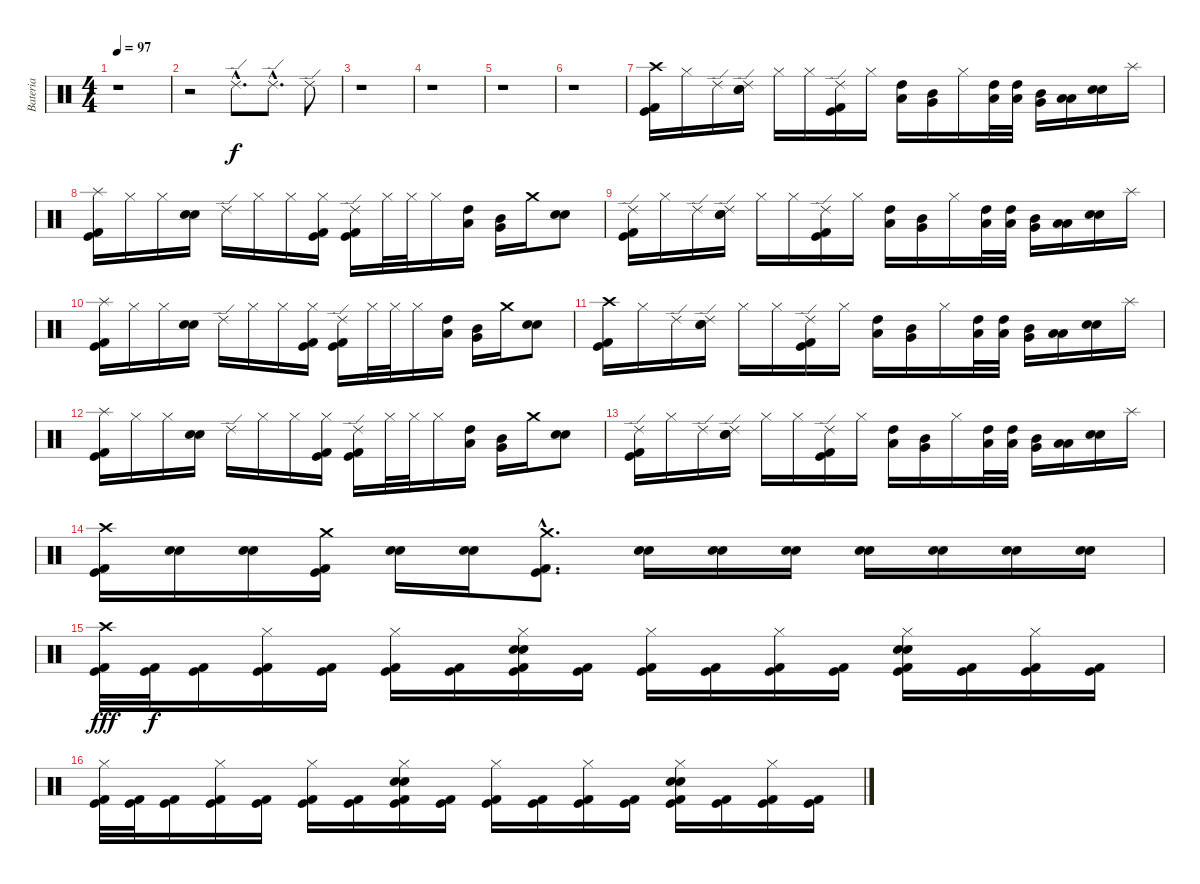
\track ("Bateria" "Bateria") {instrument percussion}
\staff {score}
\articulation defaults
\ts (4 4)
\tempo 97
\clef neutral
\ks c
r.1{dy f} |
r.2 "Ride (edge) 2"{hac}.8{d} "Ride (edge) 2"{hac}.8{d} "Ride (edge) 2".8 |
r.1 |
r.1 |
r.1 |
r.1 |
("Crash high (hit)" "Kick (hit) 2" "Kick (hit)").16 "Hi-Hat (closed)".16 "Ride (edge) 2".16 ("Ride (edge) 2" "Electric Snare (hit)" "Snare (hit) 2").16 "Hi-Hat (closed)".16 "Hi-Hat (closed)".16 ("Ride (edge) 2" "Kick (hit) 2" "Kick (hit)").16 "Hi-Hat (closed)".16 ("High Tom (hit)" "Low Tom (hit)").16 ("Mid Tom (hit)" "Very Low Tom (hit)").16 "Hi-Hat (closed)".16 ("High Tom (hit)" "Low Tom (hit)").32 ("High Tom (hit)" "Low Tom (hit)").32 ("Mid Tom (hit)" "Very Low Tom (hit)").16 ("Low Tom (hit)" "Low Floor Tom (hit)").16 ("Electric Snare (hit)" "Snare (hit) 2").16 "Splash (hit)".16 |
("Splash (hit)" "Kick (hit) 2" "Kick (hit)").16 "Hi-Hat (closed)".16 "Hi-Hat (closed)".16 ("Electric Snare (hit)" "Snare (hit) 2").16 "Ride (edge) 2".16 "Hi-Hat (closed)".16 "Hi-Hat (closed)".16 ("Hi-Hat (closed)" "Kick (hit) 2" "Kick (hit)").16 ("Ride (edge) 2" "Kick (hit) 2" "Kick (hit)").16 "Hi-Hat (closed)".32 "Hi-Hat (closed)".32 "Hi-Hat (closed)".16 ("High Tom (hit)" "Low Tom (hit)").16 ("Mid Tom (hit)" "Very Low Tom (hit)").16 "Crash medium (hit)".16 ("Electric Snare (hit)" "Snare (hit) 2").8 |
("Ride (edge) 2" "Kick (hit) 2" "Kick (hit)").16 "Hi-Hat (closed)".16 "Ride (edge) 2".16 ("Ride (edge) 2" "Electric Snare (hit)" "Snare (hit) 2").16 "Hi-Hat (closed)".16 "Hi-Hat (closed)".16 ("Ride (edge) 2" "Kick (hit) 2" "Kick (hit)").16 "Hi-Hat (closed)".16 ("High Tom (hit)" "Low Tom (hit)").16 ("Mid Tom (hit)" "Very Low Tom (hit)").16 "Hi-Hat (closed)".16 ("High Tom (hit)" "Low Tom (hit)").32 ("High Tom (hit)" "Low Tom (hit)").32 ("Mid Tom (hit)" "Very Low Tom (hit)").16 ("Low Tom (hit)" "Low Floor Tom (hit)").16 ("Electric Snare (hit)" "Snare (hit) 2").16 "Splash (hit)".16 |
("Splash (hit)" "Kick (hit) 2" "Kick (hit)").16 "Hi-Hat (closed)".16 "Hi-Hat (closed)".16 ("Electric Snare (hit)" "Snare (hit) 2").16 "Ride (edge) 2".16 "Hi-Hat (closed)".16 "Hi-Hat (closed)".16 ("Hi-Hat (closed)" "Kick (hit) 2" "Kick (hit)").16 ("Ride (edge) 2" "Kick (hit) 2" "Kick (hit)").16 "Hi-Hat (closed)".32 "Hi-Hat (closed)".32 "Hi-Hat (closed)".16 ("High Tom (hit)" "Low Tom (hit)").16 ("Mid Tom (hit)" "Very Low Tom (hit)").16 "Crash medium (hit)".16 ("Electric Snare (hit)" "Snare (hit) 2").8 |
("Crash high (hit)" "Kick (hit) 2" "Kick (hit)").16 "Hi-Hat (closed)".16 "Ride (edge) 2".16 ("Ride (edge) 2" "Electric Snare (hit)" "Snare (hit) 2").16 "Hi-Hat (closed)".16 "Hi-Hat (closed)".16 ("Ride (edge) 2" "Kick (hit) 2" "Kick (hit)").16 "Hi-Hat (closed)".16 ("High Tom (hit)" "Low Tom (hit)").16 ("Mid Tom (hit)" "Very Low Tom (hit)").16 "Hi-Hat (closed)".16 ("High Tom (hit)" "Low Tom (hit)").32 ("High Tom (hit)" "Low Tom (hit)").32 ("Mid Tom (hit)" "Very Low Tom (hit)").16 ("Low Tom (hit)" "Low Floor Tom (hit)").16 ("Electric Snare (hit)" "Snare (hit) 2").16 "Splash (hit)".16 |
("Splash (hit)" "Kick (hit) 2" "Kick (hit)").16 "Hi-Hat (closed)".16 "Hi-Hat (closed)".16 ("Electric Snare (hit)" "Snare (hit) 2").16 "Ride (edge) 2".16 "Hi-Hat (closed)".16 "Hi-Hat (closed)".16 ("Hi-Hat (closed)" "Kick (hit) 2" "Kick (hit)").16 ("Ride (edge) 2" "Kick (hit) 2" "Kick (hit)").16 "Hi-Hat (closed)".32 "Hi-Hat (closed)".32 "Hi-Hat (closed)".16 ("High Tom (hit)" "Low Tom (hit)").16 ("Mid Tom (hit)" "Very Low Tom (hit)").16 "Crash medium (hit)".16 ("Electric Snare (hit)" "Snare (hit) 2").8 |
("Ride (edge) 2" "Kick (hit) 2" "Kick (hit)").16 "Hi-Hat (closed)".16 "Ride (edge) 2".16 ("Ride (edge) 2" "Electric Snare (hit)" "Snare (hit) 2").16 "Hi-Hat (closed)".16 "Hi-Hat (closed)".16 ("Ride (edge) 2" "Kick (hit) 2" "Kick (hit)").16 "Hi-Hat (closed)".16 ("High Tom (hit)" "Low Tom (hit)").16 ("Mid Tom (hit)" "Very Low Tom (hit)").16 "Hi-Hat (closed)".16 ("High Tom (hit)" "Low Tom (hit)").32 ("High Tom (hit)" "Low Tom (hit)").32 ("Mid Tom (hit)" "Very Low Tom (hit)").16 ("Low Tom (hit)" "Low Floor Tom (hit)").16 ("Electric Snare (hit)" "Snare (hit) 2").16 "Splash (hit)".16 |
("Crash high (hit)" "Kick (hit) 2" "Kick (hit)").16 ("Electric Snare (hit)" "Snare (hit) 2").16 ("Electric Snare (hit)" "Snare (hit) 2").16 ("Crash medium (hit)" "Kick (hit) 2" "Kick (hit)").16 ("Electric Snare (hit)" "Snare (hit) 2").16 ("Electric Snare (hit)" "Snare (hit) 2").16 ("Crash medium (hit)"{hac} "Kick (hit) 2"{hac} "Kick (hit)"{hac}).8{d} ("Electric Snare (hit)" "Snare (hit) 2").16 ("Electric Snare (hit)" "Snare (hit) 2").16 ("Electric Snare (hit)" "Snare (hit) 2").16 ("Electric Snare (hit)" "Snare (hit) 2").16 ("Electric Snare (hit)" "Snare (hit) 2").16 ("Electric Snare (hit)" "Snare (hit) 2").16 ("Electric Snare (hit)" "Snare (hit) 2").16 |
("Crash high (hit)" "Kick (hit) 2" "Kick (hit)").32{dy fff} ("Kick (hit) 2" "Kick (hit)").32{dy f} ("Kick (hit) 2" "Kick (hit)").16 ("Hi-Hat (closed)" "Kick (hit) 2" "Kick (hit)").16 ("Kick (hit) 2" "Kick (hit)").16 ("Hi-Hat (closed)" "Kick (hit) 2" "Kick (hit)").16 ("Kick (hit) 2" "Kick (hit)").16 ("Hi-Hat (closed)" "Electric Snare (hit)" "Snare (hit) 2" "Kick (hit) 2" "Kick (hit)").16 ("Kick (hit) 2" "Kick (hit)").16 ("Hi-Hat (closed)" "Kick (hit) 2" "Kick (hit)").16 ("Kick (hit) 2" "Kick (hit)").16 ("Hi-Hat (closed)" "Kick (hit) 2" "Kick (hit)").16 ("Kick (hit) 2" "Kick (hit)").16 ("Hi-Hat (closed)" "Electric Snare (hit)" "Snare (hit) 2" "Kick (hit) 2" "Kick (hit)").16 ("Kick (hit) 2" "Kick (hit)").16 ("Hi-Hat (closed)" "Kick (hit) 2" "Kick (hit)").16 ("Kick (hit) 2" "Kick (hit)").16 |
("Hi-Hat (closed)" "Kick (hit) 2" "Kick (hit)").32 ("Kick (hit) 2" "Kick (hit)").32 ("Kick (hit) 2" "Kick (hit)").16 ("Hi-Hat (closed)" "Kick (hit) 2" "Kick (hit)").16 ("Kick (hit) 2" "Kick (hit)").16 ("Hi-Hat (closed)" "Kick (hit) 2" "Kick (hit)").16 ("Kick (hit) 2" "Kick (hit)").16 ("Hi-Hat (closed)" "Electric Snare (hit)" "Snare (hit) 2" "Kick (hit) 2" "Kick (hit)").16 ("Kick (hit) 2" "Kick (hit)").16 ("Hi-Hat (closed)" "Kick (hit) 2" "Kick (hit)").16 ("Kick (hit) 2" "Kick (hit)").16 ("Hi-Hat (closed)" "Kick (hit) 2" "Kick (hit)").16 ("Kick (hit) 2" "Kick (hit)").16 ("Hi-Hat (closed)" "Electric Snare (hit)" "Snare (hit) 2" "Kick (hit) 2" "Kick (hit)").16 ("Kick (hit) 2" "Kick (hit)").16 ("Hi-Hat (closed)" "Kick (hit) 2" "Kick (hit)").16 ("Kick (hit) 2" "Kick (hit)").16
